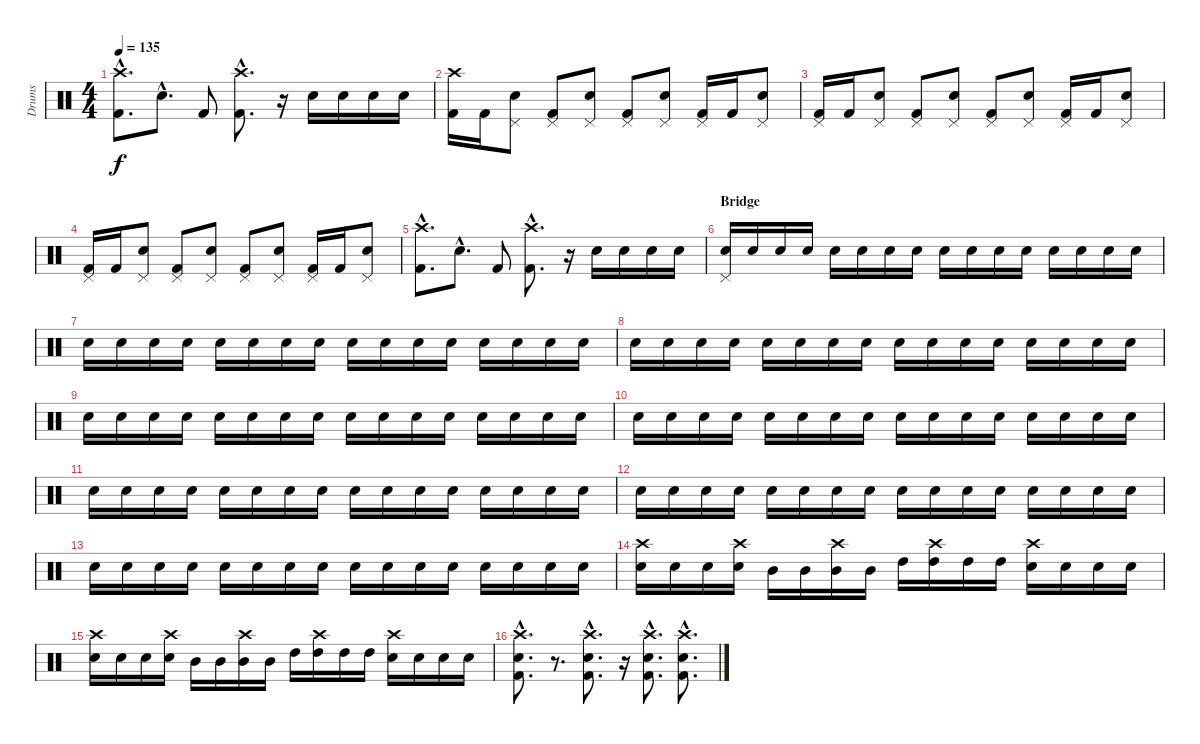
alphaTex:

\track ("Drums" "Drums") {instrument percussion}
\staff {score}
\articulation defaults
\ts (4 4)
\tempo 135
\clef neutral
\ks c
("Crash high (hit)"{hac} "Kick (hit) 2"{hac}).8{d dy f} "Snare (hit) 2"{hac}.8{d} "Kick (hit) 2".8 ("Crash high (hit)"{hac} "Kick (hit) 2"{hac}).8{d} r.16 "Snare (hit) 2".16 "Snare (hit) 2".16 "Snare (hit) 2".16 "Snare (hit) 2".16 |
("Crash high (hit)" "Kick (hit) 2").16 "Kick (hit) 2".16 ("Pedal Hi-Hat (hit)" "Snare (hit) 2").8 ("Pedal Hi-Hat (hit)" "Kick (hit) 2").8 ("Pedal Hi-Hat (hit)" "Snare (hit) 2").8 ("Pedal Hi-Hat (hit)" "Kick (hit) 2").8 ("Pedal Hi-Hat (hit)" "Snare (hit) 2").8 ("Pedal Hi-Hat (hit)" "Kick (hit) 2").16 "Kick (hit) 2".16 ("Pedal Hi-Hat (hit)" "Snare (hit) 2").8 |
("Pedal Hi-Hat (hit)" "Kick (hit) 2").16 "Kick (hit) 2".16 ("Pedal Hi-Hat (hit)" "Snare (hit) 2").8 ("Pedal Hi-Hat (hit)" "Kick (hit) 2").8 ("Pedal Hi-Hat (hit)" "Snare (hit) 2").8 ("Pedal Hi-Hat (hit)" "Kick (hit) 2").8 ("Pedal Hi-Hat (hit)" "Snare (hit) 2").8 ("Pedal Hi-Hat (hit)" "Kick (hit) 2").16 "Kick (hit) 2".16 ("Pedal Hi-Hat (hit)" "Snare (hit) 2").8 |
("Pedal Hi-Hat (hit)" "Kick (hit) 2").16 "Kick (hit) 2".16 ("Pedal Hi-Hat (hit)" "Snare (hit) 2").8 ("Pedal Hi-Hat (hit)" "Kick (hit) 2").8 ("Pedal Hi-Hat (hit)" "Snare (hit) 2").8 ("Pedal Hi-Hat (hit)" "Kick (hit) 2").8 ("Pedal Hi-Hat (hit)" "Snare (hit) 2").8 ("Pedal Hi-Hat (hit)" "Kick (hit) 2").16 "Kick (hit) 2".16 ("Pedal Hi-Hat (hit)" "Snare (hit) 2").8 |
("Crash high (hit)"{hac} "Kick (hit) 2"{hac}).8{d} "Snare (hit) 2"{hac}.8{d} "Kick (hit) 2".8 ("Crash high (hit)"{hac} "Kick (hit) 2"{hac}).8{d} r.16 "Snare (hit) 2".16 "Snare (hit) 2".16 "Snare (hit) 2".16 "Snare (hit) 2".16 |
\section ("" "Bridge")
("Pedal Hi-Hat (hit)" "Snare (hit) 2").16{volume 13} "Snare (hit) 2".16{volume 6} "Snare (hit) 2".16 "Snare (hit) 2".16 "Snare (hit) 2".16{volume 13} "Snare (hit) 2".16{volume 6} "Snare (hit) 2".16 "Snare (hit) 2".16 "Snare (hit) 2".16{volume 13} "Snare (hit) 2".16{volume 6} "Snare (hit) 2".16 "Snare (hit) 2".16 "Snare (hit) 2".16{volume 13} "Snare (hit) 2".16{volume 6} "Snare (hit) 2".16 "Snare (hit) 2".16 |
"Snare (hit) 2".16{volume 13} "Snare (hit) 2".16{volume 6} "Snare (hit) 2".16 "Snare (hit) 2".16 "Snare (hit) 2".16{volume 13} "Snare (hit) 2".16{volume 6} "Snare (hit) 2".16 "Snare (hit) 2".16 "Snare (hit) 2".16{volume 13} "Snare (hit) 2".16{volume 6} "Snare (hit) 2".16 "Snare (hit) 2".16 "Snare (hit) 2".16{volume 13} "Snare (hit) 2".16{volume 6} "Snare (hit) 2".16 "Snare (hit) 2".16 |
"Snare (hit) 2".16{volume 13} "Snare (hit) 2".16{volume 6} "Snare (hit) 2".16 "Snare (hit) 2".16 "Snare (hit) 2".16{volume 13} "Snare (hit) 2".16{volume 6} "Snare (hit) 2".16 "Snare (hit) 2".16 "Snare (hit) 2".16{volume 13} "Snare (hit) 2".16{volume 6} "Snare (hit) 2".16 "Snare (hit) 2".16 "Snare (hit) 2".16{volume 13} "Snare (hit) 2".16{volume 6} "Snare (hit) 2".16 "Snare (hit) 2".16 |
"Snare (hit) 2".16{volume 13} "Snare (hit) 2".16{volume 6} "Snare (hit) 2".16 "Snare (hit) 2".16 "Snare (hit) 2".16{volume 13} "Snare (hit) 2".16{volume 6} "Snare (hit) 2".16 "Snare (hit) 2".16 "Snare (hit) 2".16{volume 13} "Snare (hit) 2".16{volume 6} "Snare (hit) 2".16 "Snare (hit) 2".16 "Snare (hit) 2".16{volume 13} "Snare (hit) 2".16{volume 6} "Snare (hit) 2".16 "Snare (hit) 2".16 |
"Snare (hit) 2".16{volume 13} "Snare (hit) 2".16{volume 8} "Snare (hit) 2".16 "Snare (hit) 2".16 "Snare (hit) 2".16{volume 13} "Snare (hit) 2".16{volume 8} "Snare (hit) 2".16 "Snare (hit) 2".16 "Snare (hit) 2".16{volume 13} "Snare (hit) 2".16{volume 8} "Snare (hit) 2".16 "Snare (hit) 2".16 "Snare (hit) 2".16{volume 13} "Snare (hit) 2".16{volume 8} "Snare (hit) 2".16 "Snare (hit) 2".16 |
"Snare (hit) 2".16{volume 13} "Snare (hit) 2".16{volume 10} "Snare (hit) 2".16 "Snare (hit) 2".16 "Snare (hit) 2".16{volume 13} "Snare (hit) 2".16{volume 10} "Snare (hit) 2".16 "Snare (hit) 2".16 "Snare (hit) 2".16{volume 13} "Snare (hit) 2".16{volume 10} "Snare (hit) 2".16 "Snare (hit) 2".16 "Snare (hit) 2".16{volume 13} "Snare (hit) 2".16{volume 10} "Snare (hit) 2".16 "Snare (hit) 2".16 |
"Snare (hit) 2".16{volume 13} "Snare (hit) 2".16{volume 11} "Snare (hit) 2".16 "Snare (hit) 2".16 "Snare (hit) 2".16{volume 13} "Snare (hit) 2".16{volume 11} "Snare (hit) 2".16 "Snare (hit) 2".16 "Snare (hit) 2".16{volume 13} "Snare (hit) 2".16{volume 12} "Snare (hit) 2".16 "Snare (hit) 2".16 "Snare (hit) 2".16{volume 13} "Snare (hit) 2".16{volume 12} "Snare (hit) 2".16 "Snare (hit) 2".16 |
"Snare (hit) 2".16{volume 13} "Snare (hit) 2".16 "Snare (hit) 2".16 "Snare (hit) 2".16 "Snare (hit) 2".16 "Snare (hit) 2".16 "Snare (hit) 2".16 "Snare (hit) 2".16 "Snare (hit) 2".16 "Snare (hit) 2".16 "Snare (hit) 2".16 "Snare (hit) 2".16 "Snare (hit) 2".16 "Snare (hit) 2".16 "Snare (hit) 2".16 "Snare (hit) 2".16 |
("Crash high (hit)" "Snare (hit) 2").16 "Snare (hit) 2".16 "Snare (hit) 2".16 ("Crash high (hit)" "Snare (hit) 2").16 "Mid Tom (hit)".16 "Mid Tom (hit)".16 ("Crash high (hit)" "Mid Tom (hit)").16 "Mid Tom (hit)".16 "High Tom (hit)".16 ("Crash high (hit)" "High Tom (hit)").16 "High Tom (hit)".16 "High Tom (hit)".16 ("Crash high (hit)" "Snare (hit) 2").16 "Snare (hit) 2".16 "Snare (hit) 2".16 "Snare (hit) 2".16 |
("Crash high (hit)" "Snare (hit) 2").16 "Snare (hit) 2".16 "Snare (hit) 2".16 ("Crash high (hit)" "Snare (hit) 2").16 "Mid Tom (hit)".16 "Mid Tom (hit)".16 ("Crash high (hit)" "Mid Tom (hit)").16 "Mid Tom (hit)".16 "High Tom (hit)".16 ("Crash high (hit)" "High Tom (hit)").16 "High Tom (hit)".16 "High Tom (hit)".16 ("Crash high (hit)" "Snare (hit) 2").16 "Snare (hit) 2".16 "Snare (hit) 2".16 "Snare (hit) 2".16 |
("Crash high (hit)"{hac} "Snare (hit) 2"{hac} "Kick (hit) 2"{hac}).8{d} r.8{d} ("Crash high (hit)"{hac} "Snare (hit) 2"{hac} "Kick (hit) 2"{hac}).8{d} r.16 ("Crash high (hit)"{hac} "Snare (hit) 2"{hac} "Kick (hit) 2"{hac}).8{d} ("Crash high (hit)"{hac} "Snare (hit) 2"{hac} "Kick (hit) 2"{hac}).8{d}
